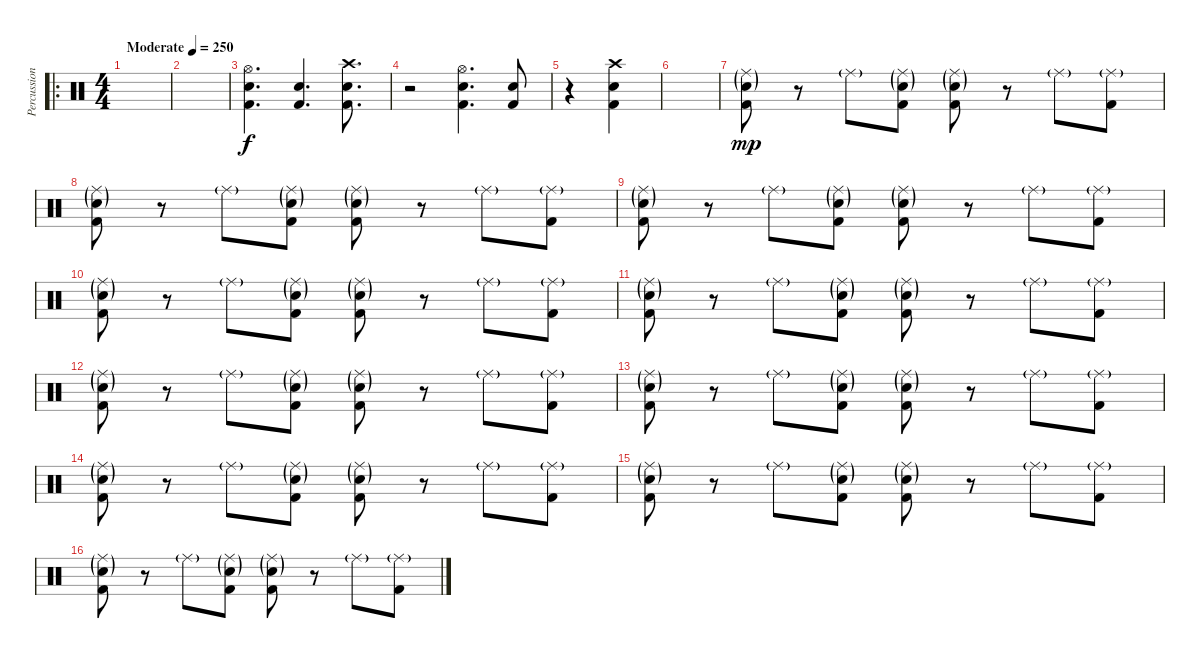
\track ("Percussion" "Percussion") {instrument percussion}
\staff {score}
\articulation defaults
\ro
\ts (4 4)
\tempo (250 "Moderate")
\clef neutral
\ks c
|
|
("Hi-Hat (open)" "Electric Snare (hit)" "Kick (hit) 2").4{d} ("Electric Snare (hit)" "Kick (hit) 2").4{d} ("Crash high (hit)" "Electric Snare (hit)" "Kick (hit) 2").8{d} |
r.2 ("Hi-Hat (open)" "Electric Snare (hit)" "Kick (hit) 2").4{d} ("Electric Snare (hit)" "Kick (hit) 2").8 |
r.4 ("Crash high (hit)" "Electric Snare (hit)" "Kick (hit) 2").4 |
|
("Ride (middle)"{g} "Electric Snare (hit)"{g} "Kick (hit) 2").8{dy mp} r.8 "Ride (middle)"{g}.8 ("Ride (middle)"{g} "Electric Snare (hit)"{g} "Kick (hit) 2").8 ("Ride (middle)"{g} "Electric Snare (hit)"{g} "Kick (hit) 2").8 r.8 "Ride (middle)"{g}.8 ("Ride (middle)"{g} "Kick (hit) 2").8 |
("Ride (middle)"{g} "Electric Snare (hit)"{g} "Kick (hit) 2").8 r.8 "Ride (middle)"{g}.8 ("Ride (middle)"{g} "Electric Snare (hit)"{g} "Kick (hit) 2").8 ("Ride (middle)"{g} "Electric Snare (hit)"{g} "Kick (hit) 2").8 r.8 "Ride (middle)"{g}.8 ("Ride (middle)"{g} "Kick (hit) 2").8 |
("Ride (middle)"{g} "Electric Snare (hit)"{g} "Kick (hit) 2").8 r.8 "Ride (middle)"{g}.8 ("Ride (middle)"{g} "Electric Snare (hit)"{g} "Kick (hit) 2").8 ("Ride (middle)"{g} "Electric Snare (hit)"{g} "Kick (hit) 2").8 r.8 "Ride (middle)"{g}.8 ("Ride (middle)"{g} "Kick (hit) 2").8 |
("Ride (middle)"{g} "Electric Snare (hit)"{g} "Kick (hit) 2").8 r.8 "Ride (middle)"{g}.8 ("Ride (middle)"{g} "Electric Snare (hit)"{g} "Kick (hit) 2").8 ("Ride (middle)"{g} "Electric Snare (hit)"{g} "Kick (hit) 2").8 r.8 "Ride (middle)"{g}.8 ("Ride (middle)"{g} "Kick (hit) 2").8 |
("Ride (middle)"{g} "Electric Snare (hit)"{g} "Kick (hit) 2").8 r.8 "Ride (middle)"{g}.8 ("Ride (middle)"{g} "Electric Snare (hit)"{g} "Kick (hit) 2").8 ("Ride (middle)"{g} "Electric Snare (hit)"{g} "Kick (hit) 2").8 r.8 "Ride (middle)"{g}.8 ("Ride (middle)"{g} "Kick (hit) 2").8 |
("Ride (middle)"{g} "Electric Snare (hit)"{g} "Kick (hit) 2").8 r.8 "Ride (middle)"{g}.8 ("Ride (middle)"{g} "Electric Snare (hit)"{g} "Kick (hit) 2").8 ("Ride (middle)"{g} "Electric Snare (hit)"{g} "Kick (hit) 2").8 r.8 "Ride (middle)"{g}.8 ("Ride (middle)"{g} "Kick (hit) 2").8 |
("Ride (middle)"{g} "Electric Snare (hit)"{g} "Kick (hit) 2").8 r.8 "Ride (middle)"{g}.8 ("Ride (middle)"{g} "Electric Snare (hit)"{g} "Kick (hit) 2").8 ("Ride (middle)"{g} "Electric Snare (hit)"{g} "Kick (hit) 2").8 r.8 "Ride (middle)"{g}.8 ("Ride (middle)"{g} "Kick (hit) 2").8 |
("Ride (middle)"{g} "Electric Snare (hit)"{g} "Kick (hit) 2").8 r.8 "Ride (middle)"{g}.8 ("Ride (middle)"{g} "Electric Snare (hit)"{g} "Kick (hit) 2").8 ("Ride (middle)"{g} "Electric Snare (hit)"{g} "Kick (hit) 2").8 r.8 "Ride (middle)"{g}.8 ("Ride (middle)"{g} "Kick (hit) 2").8 |
("Ride (middle)"{g} "Electric Snare (hit)"{g} "Kick (hit) 2").8 r.8 "Ride (middle)"{g}.8 ("Ride (middle)"{g} "Electric Snare (hit)"{g} "Kick (hit) 2").8 ("Ride (middle)"{g} "Electric Snare (hit)"{g} "Kick (hit) 2").8 r.8 "Ride (middle)"{g}.8 ("Ride (middle)"{g} "Kick (hit) 2").8 |
("Ride (middle)"{g} "Electric Snare (hit)"{g} "Kick (hit) 2").8 r.8 "Ride (middle)"{g}.8 ("Ride (middle)"{g} "Electric Snare (hit)"{g} "Kick (hit) 2").8 ("Ride (middle)"{g} "Electric Snare (hit)"{g} "Kick (hit) 2").8 r.8 "Ride (middle)"{g}.8 ("Ride (middle)"{g} "Kick (hit) 2").8
